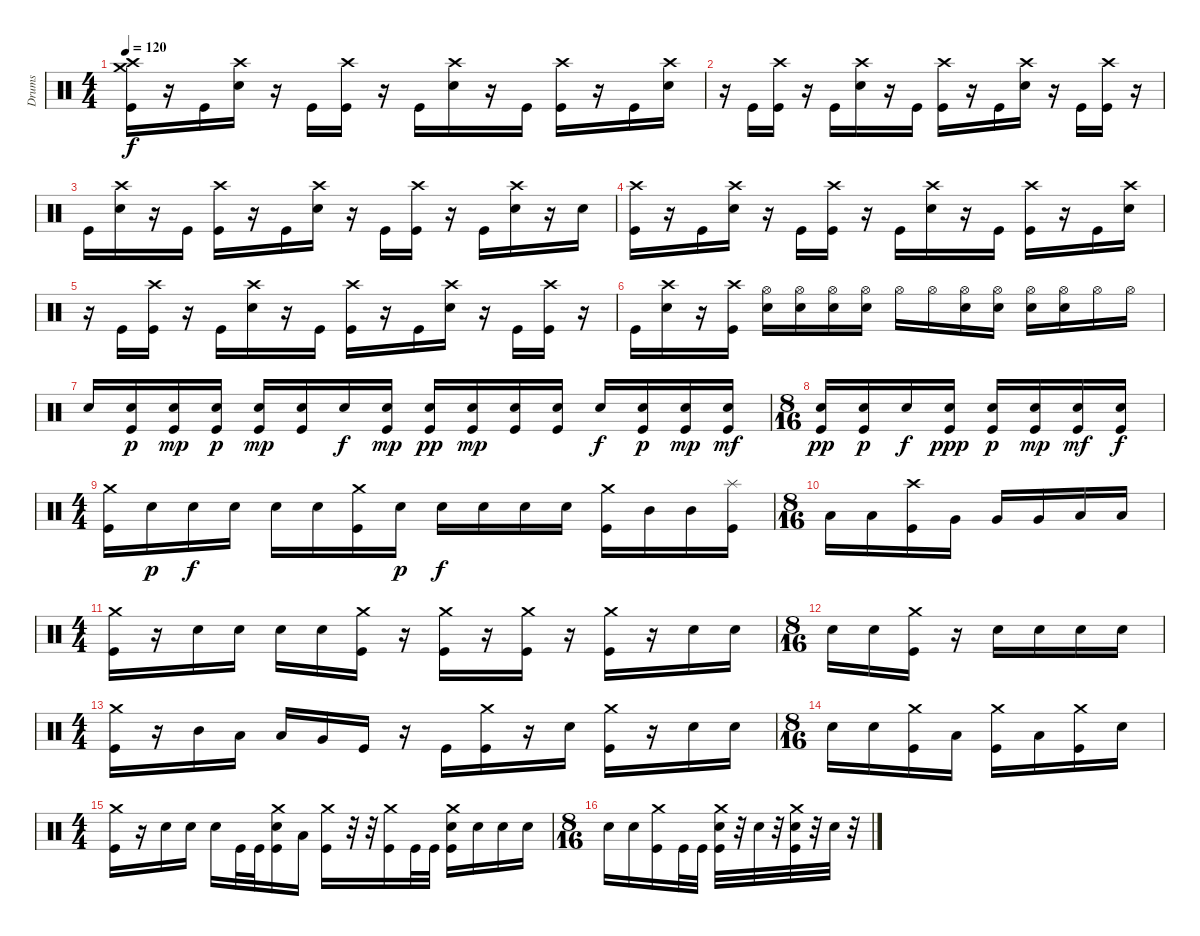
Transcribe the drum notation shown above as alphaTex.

\track ("Drums" "Drums") {instrument percussion}
\staff {score}
\articulation defaults
\ts (4 4)
\tempo 120
\clef neutral
\ks c
("Crash high (hit)" "Crash medium (hit)" "Kick (hit)").16{dy f} r.16 "Kick (hit)".16 ("Crash high (hit)" "Electric Snare (hit)").16 r.16 "Kick (hit)".16 ("Crash high (hit)" "Kick (hit)").16 r.16 "Kick (hit)".16 ("Crash high (hit)" "Electric Snare (hit)").16 r.16 "Kick (hit)".16 ("Crash high (hit)" "Kick (hit)").16 r.16 "Kick (hit)".16 ("Crash high (hit)" "Electric Snare (hit)").16 |
r.16 "Kick (hit)".16 ("Crash high (hit)" "Kick (hit)").16 r.16 "Kick (hit)".16 ("Crash high (hit)" "Electric Snare (hit)").16 r.16 "Kick (hit)".16 ("Crash high (hit)" "Kick (hit)").16 r.16 "Kick (hit)".16 ("Crash high (hit)" "Electric Snare (hit)").16 r.16 "Kick (hit)".16 ("Crash high (hit)" "Kick (hit)").16 r.16 |
"Kick (hit)".16 ("Crash high (hit)" "Electric Snare (hit)").16 r.16 "Kick (hit)".16 ("Crash high (hit)" "Kick (hit)").16 r.16 "Kick (hit)".16 ("Crash high (hit)" "Electric Snare (hit)").16 r.16 "Kick (hit)".16 ("Crash high (hit)" "Kick (hit)").16 r.16 "Kick (hit)".16 ("Crash high (hit)" "Electric Snare (hit)").16 r.16 "Electric Snare (hit)".16 |
("Crash high (hit)" "Kick (hit)").16 r.16 "Kick (hit)".16 ("Crash high (hit)" "Electric Snare (hit)").16 r.16 "Kick (hit)".16 ("Crash high (hit)" "Kick (hit)").16 r.16 "Kick (hit)".16 ("Crash high (hit)" "Electric Snare (hit)").16 r.16 "Kick (hit)".16 ("Crash high (hit)" "Kick (hit)").16 r.16 "Kick (hit)".16 ("Crash high (hit)" "Electric Snare (hit)").16 |
r.16 "Kick (hit)".16 ("Crash high (hit)" "Kick (hit)").16 r.16 "Kick (hit)".16 ("Crash high (hit)" "Electric Snare (hit)").16 r.16 "Kick (hit)".16 ("Crash high (hit)" "Kick (hit)").16 r.16 "Kick (hit)".16 ("Crash high (hit)" "Electric Snare (hit)").16 r.16 "Kick (hit)".16 ("Crash high (hit)" "Kick (hit)").16 r.16 |
"Kick (hit)".16 ("Crash high (hit)" "Electric Snare (hit)").16 r.16 ("Crash high (hit)" "Kick (hit)").16 ("Hi-Hat (open)" "Electric Snare (hit)").16 ("Hi-Hat (open)" "Electric Snare (hit)").16 ("Hi-Hat (open)" "Electric Snare (hit)").16 ("Hi-Hat (open)" "Electric Snare (hit)").16 "Hi-Hat (open)".16 "Hi-Hat (open)".16 ("Hi-Hat (open)" "Electric Snare (hit)").16 ("Hi-Hat (open)" "Electric Snare (hit)").16 ("Hi-Hat (open)" "Electric Snare (hit)").16 ("Hi-Hat (open)" "Electric Snare (hit)").16 "Hi-Hat (open)".16 "Hi-Hat (open)".16 |
"Electric Snare (hit)".16 ("Electric Snare (hit)" "Kick (hit)").16{dy p} ("Electric Snare (hit)" "Kick (hit)").16{dy mp} ("Electric Snare (hit)" "Kick (hit)").16{dy p} ("Electric Snare (hit)" "Kick (hit)").16{dy mp} ("Electric Snare (hit)" "Kick (hit)").16 "Electric Snare (hit)".16{dy f} ("Electric Snare (hit)" "Kick (hit)").16{dy mp} ("Electric Snare (hit)" "Kick (hit)").16{dy pp} ("Electric Snare (hit)" "Kick (hit)").16{dy mp} ("Electric Snare (hit)" "Kick (hit)").16 ("Electric Snare (hit)" "Kick (hit)").16 "Electric Snare (hit)".16{dy f} ("Electric Snare (hit)" "Kick (hit)").16{dy p} ("Electric Snare (hit)" "Kick (hit)").16{dy mp} ("Electric Snare (hit)" "Kick (hit)").16{dy mf} |
\ts (8 16)
("Electric Snare (hit)" "Kick (hit)").16{dy pp} ("Electric Snare (hit)" "Kick (hit)").16{dy p} "Electric Snare (hit)".16{dy f} ("Electric Snare (hit)" "Kick (hit)").16{dy ppp} ("Electric Snare (hit)" "Kick (hit)").16{dy p} ("Electric Snare (hit)" "Kick (hit)").16{dy mp} ("Electric Snare (hit)" "Kick (hit)").16{dy mf} ("Electric Snare (hit)" "Kick (hit)").16{dy f} |
\ts (4 4)
("Kick (hit)" "Crash medium (hit)").16 "Electric Snare (hit)".16{dy p} "Electric Snare (hit)".16{dy f} "Electric Snare (hit)".16 "Electric Snare (hit)".16 "Electric Snare (hit)".16 ("Crash medium (hit)" "Kick (hit)").16 "Electric Snare (hit)".16{dy p} "Electric Snare (hit)".16{dy f} "Electric Snare (hit)".16 "Electric Snare (hit)".16 "Electric Snare (hit)".16 ("Crash medium (hit)" "Kick (hit)").16 "Mid Tom (hit)".16 "Mid Tom (hit)".16 ("Splash (hit)" "Kick (hit)").16 |
\ts (8 16)
"Low Tom (hit)".16 "Low Tom (hit)".16 ("Crash high (hit)" "Kick (hit)").16 "Very Low Tom (hit)".16 "Very Low Tom (hit)".16 "Very Low Tom (hit)".16 "Low Floor Tom (hit)".16 "Low Floor Tom (hit)".16 |
\ts (4 4)
("Crash medium (hit)" "Kick (hit)").16 r.16 "Electric Snare (hit)".16 "Electric Snare (hit)".16 "Electric Snare (hit)".16 "Electric Snare (hit)".16 ("Crash medium (hit)" "Kick (hit)").16 r.16 ("Crash medium (hit)" "Kick (hit)").16 r.16 ("Crash medium (hit)" "Kick (hit)").16 r.16 ("Crash medium (hit)" "Kick (hit)").16 r.16 "Electric Snare (hit)".16 "Electric Snare (hit)".16 |
\ts (8 16)
"Electric Snare (hit)".16 "Electric Snare (hit)".16 ("Crash medium (hit)" "Kick (hit)").16 r.16 "Electric Snare (hit)".16 "Electric Snare (hit)".16 "Electric Snare (hit)".16 "Electric Snare (hit)".16 |
\ts (4 4)
("Crash medium (hit)" "Kick (hit)").16 r.16 "Mid Tom (hit)".16 "Low Tom (hit)".16 "Low Tom (hit)".16 "Very Low Tom (hit)".16 "Kick (hit)".16 r.16 "Kick (hit)".16 ("Crash medium (hit)" "Kick (hit)").16 r.16 "Electric Snare (hit)".16 ("Crash medium (hit)" "Kick (hit)").16 r.16 "Electric Snare (hit)".16 "Electric Snare (hit)".16 |
\ts (8 16)
"Electric Snare (hit)".16 "Electric Snare (hit)".16 ("Kick (hit)" "Crash medium (hit)").16 "Low Floor Tom (hit)".16 ("Kick (hit)" "Crash medium (hit)").16 "Low Floor Tom (hit)".16 ("Kick (hit)" "Crash medium (hit)").16 "Electric Snare (hit)".16 |
\ts (4 4)
("Kick (hit)" "Crash medium (hit)").16 r.16 "Electric Snare (hit)".16 "Electric Snare (hit)".16 "Electric Snare (hit)".16 "Kick (hit)".32 "Kick (hit)".32 ("Kick (hit)" "Electric Snare (hit)" "Crash medium (hit)").16 "Low Floor Tom (hit)".16 ("Kick (hit)" "Crash medium (hit)").16 r.32 r.32 ("Kick (hit)" "Crash medium (hit)").16 "Kick (hit)".32 "Kick (hit)".32 ("Crash medium (hit)" "Electric Snare (hit)" "Kick (hit)").16 "Electric Snare (hit)".16 "Electric Snare (hit)".16 "Electric Snare (hit)".16 |
\ts (8 16)
"Electric Snare (hit)".16 "Electric Snare (hit)".16 ("Kick (hit)" "Crash medium (hit)").16 "Kick (hit)".32 "Kick (hit)".32 ("Kick (hit)" "Crash medium (hit)" "Electric Snare (hit)").32 r.32 "Electric Snare (hit)".32 r.32 ("Electric Snare (hit)" "Kick (hit)" "Crash medium (hit)").32 r.32 "Electric Snare (hit)".32 r.32
